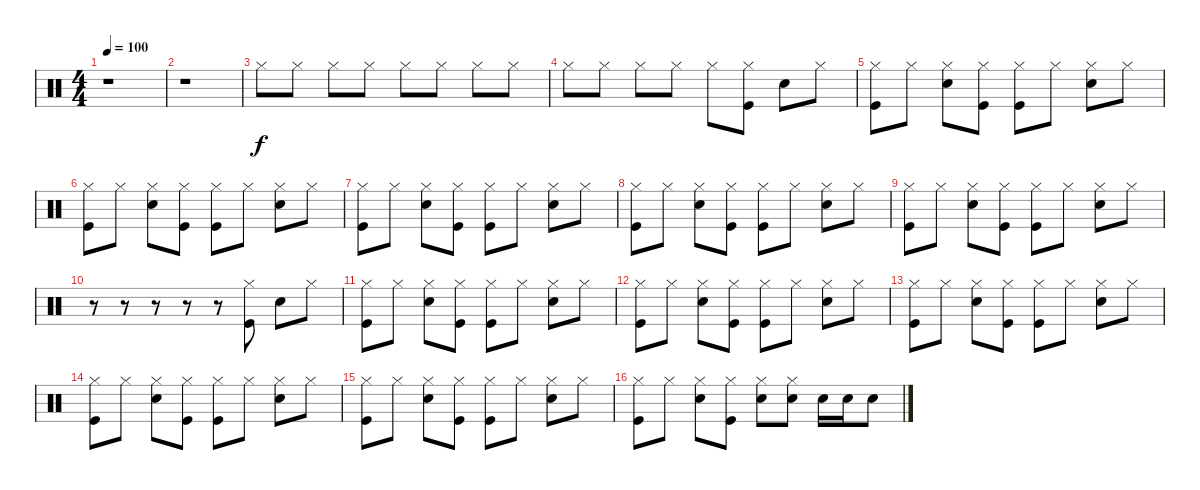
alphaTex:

\track "" {instrument percussion}
\staff {score}
\articulation defaults
\ts (4 4)
\tempo 100
\clef neutral
\ks c
r.1{dy f} |
r.1 |
"Hi-Hat (closed)".8 "Hi-Hat (closed)".8 "Hi-Hat (closed)".8 "Hi-Hat (closed)".8 "Hi-Hat (closed)".8 "Hi-Hat (closed)".8 "Hi-Hat (closed)".8 "Hi-Hat (closed)".8 |
"Hi-Hat (closed)".8 "Hi-Hat (closed)".8 "Hi-Hat (closed)".8 "Hi-Hat (closed)".8 "Hi-Hat (closed)".8 ("Hi-Hat (closed)" "Kick (hit)").8 "Electric Snare (hit)".8 "Hi-Hat (closed)".8 |
("Hi-Hat (closed)" "Kick (hit)").8 "Hi-Hat (closed)".8 ("Hi-Hat (closed)" "Electric Snare (hit)").8 ("Hi-Hat (closed)" "Kick (hit)").8 ("Hi-Hat (closed)" "Kick (hit)").8 "Hi-Hat (closed)".8 ("Hi-Hat (closed)" "Electric Snare (hit)").8 "Hi-Hat (closed)".8 |
("Hi-Hat (closed)" "Kick (hit)").8 "Hi-Hat (closed)".8 ("Hi-Hat (closed)" "Electric Snare (hit)").8 ("Hi-Hat (closed)" "Kick (hit)").8 ("Hi-Hat (closed)" "Kick (hit)").8 "Hi-Hat (closed)".8 ("Hi-Hat (closed)" "Electric Snare (hit)").8 "Hi-Hat (closed)".8 |
("Hi-Hat (closed)" "Kick (hit)").8 "Hi-Hat (closed)".8 ("Hi-Hat (closed)" "Electric Snare (hit)").8 ("Hi-Hat (closed)" "Kick (hit)").8 ("Hi-Hat (closed)" "Kick (hit)").8 "Hi-Hat (closed)".8 ("Hi-Hat (closed)" "Electric Snare (hit)").8 "Hi-Hat (closed)".8 |
("Hi-Hat (closed)" "Kick (hit)").8 "Hi-Hat (closed)".8 ("Hi-Hat (closed)" "Electric Snare (hit)").8 ("Hi-Hat (closed)" "Kick (hit)").8 ("Hi-Hat (closed)" "Kick (hit)").8 "Hi-Hat (closed)".8 ("Hi-Hat (closed)" "Electric Snare (hit)").8 "Hi-Hat (closed)".8 |
("Hi-Hat (closed)" "Kick (hit)").8 "Hi-Hat (closed)".8 ("Hi-Hat (closed)" "Electric Snare (hit)").8 ("Hi-Hat (closed)" "Kick (hit)").8 ("Hi-Hat (closed)" "Kick (hit)").8 "Hi-Hat (closed)".8 ("Hi-Hat (closed)" "Electric Snare (hit)").8 "Hi-Hat (closed)".8 |
r.8 r.8 r.8 r.8 r.8 ("Hi-Hat (closed)" "Kick (hit)").8 "Electric Snare (hit)".8 "Hi-Hat (closed)".8 |
("Hi-Hat (closed)" "Kick (hit)").8 "Hi-Hat (closed)".8 ("Hi-Hat (closed)" "Electric Snare (hit)").8 ("Hi-Hat (closed)" "Kick (hit)").8 ("Hi-Hat (closed)" "Kick (hit)").8 "Hi-Hat (closed)".8 ("Hi-Hat (closed)" "Electric Snare (hit)").8 "Hi-Hat (closed)".8 |
("Hi-Hat (closed)" "Kick (hit)").8 "Hi-Hat (closed)".8 ("Hi-Hat (closed)" "Electric Snare (hit)").8 ("Hi-Hat (closed)" "Kick (hit)").8 ("Hi-Hat (closed)" "Kick (hit)").8 "Hi-Hat (closed)".8 ("Hi-Hat (closed)" "Electric Snare (hit)").8 "Hi-Hat (closed)".8 |
("Hi-Hat (closed)" "Kick (hit)").8 "Hi-Hat (closed)".8 ("Hi-Hat (closed)" "Electric Snare (hit)").8 ("Hi-Hat (closed)" "Kick (hit)").8 ("Hi-Hat (closed)" "Kick (hit)").8 "Hi-Hat (closed)".8 ("Hi-Hat (closed)" "Electric Snare (hit)").8 "Hi-Hat (closed)".8 |
("Hi-Hat (closed)" "Kick (hit)").8 "Hi-Hat (closed)".8 ("Hi-Hat (closed)" "Electric Snare (hit)").8 ("Hi-Hat (closed)" "Kick (hit)").8 ("Hi-Hat (closed)" "Kick (hit)").8 "Hi-Hat (closed)".8 ("Hi-Hat (closed)" "Electric Snare (hit)").8 "Hi-Hat (closed)".8 |
("Hi-Hat (closed)" "Kick (hit)").8 "Hi-Hat (closed)".8 ("Hi-Hat (closed)" "Electric Snare (hit)").8 ("Hi-Hat (closed)" "Kick (hit)").8 ("Hi-Hat (closed)" "Kick (hit)").8 "Hi-Hat (closed)".8 ("Hi-Hat (closed)" "Electric Snare (hit)").8 "Hi-Hat (closed)".8 |
("Hi-Hat (closed)" "Kick (hit)").8 "Hi-Hat (closed)".8 ("Hi-Hat (closed)" "Electric Snare (hit)").8 ("Hi-Hat (closed)" "Kick (hit)").8 ("Hi-Hat (closed)" "Electric Snare (hit)").8 ("Hi-Hat (closed)" "Electric Snare (hit)").8 "Electric Snare (hit)".16 "Electric Snare (hit)".16 "Electric Snare (hit)".8
